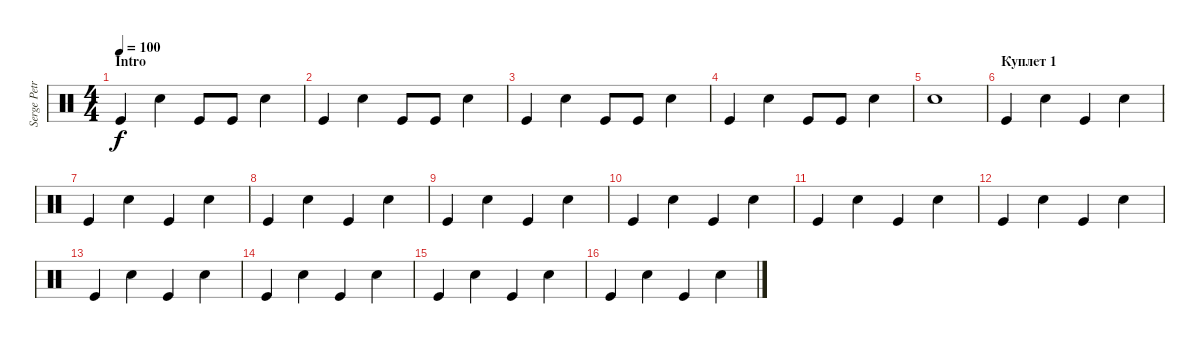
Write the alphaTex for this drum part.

\track ("Serge Petrone" "Serge Petr") {instrument percussion}
\staff {score}
\articulation defaults
\ts (4 4)
\section ("" "Intro")
\tempo 100
\clef neutral
\ks c "Kick (hit)".4{dy f} "Snare (hit) 2".4 "Kick (hit)".8 "Kick (hit)".8 "Snare (hit) 2".4
|
"Kick (hit)".4 "Snare (hit) 2".4 "Kick (hit)".8 "Kick (hit)".8 "Snare (hit) 2".4 |
"Kick (hit)".4 "Snare (hit) 2".4 "Kick (hit)".8 "Kick (hit)".8 "Snare (hit) 2".4 |
"Kick (hit)".4 "Snare (hit) 2".4 "Kick (hit)".8 "Kick (hit)".8 "Snare (hit) 2".4 |
"Snare (hit) 2".1 |
\section ("" "Куплет 1")
"Kick (hit)".4 "Snare (hit) 2".4 "Kick (hit)".4 "Snare (hit) 2".4 |
"Kick (hit)".4 "Snare (hit) 2".4 "Kick (hit)".4 "Snare (hit) 2".4 |
"Kick (hit)".4 "Snare (hit) 2".4 "Kick (hit)".4 "Snare (hit) 2".4 |
"Kick (hit)".4 "Snare (hit) 2".4 "Kick (hit)".4 "Snare (hit) 2".4 |
"Kick (hit)".4 "Snare (hit) 2".4 "Kick (hit)".4 "Snare (hit) 2".4 |
"Kick (hit)".4 "Snare (hit) 2".4 "Kick (hit)".4 "Snare (hit) 2".4 |
"Kick (hit)".4 "Snare (hit) 2".4 "Kick (hit)".4 "Snare (hit) 2".4 |
"Kick (hit)".4 "Snare (hit) 2".4 "Kick (hit)".4 "Snare (hit) 2".4 |
"Kick (hit)".4 "Snare (hit) 2".4 "Kick (hit)".4 "Snare (hit) 2".4 |
"Kick (hit)".4 "Snare (hit) 2".4 "Kick (hit)".4 "Snare (hit) 2".4 |
"Kick (hit)".4 "Snare (hit) 2".4 "Kick (hit)".4 "Snare (hit) 2".4
